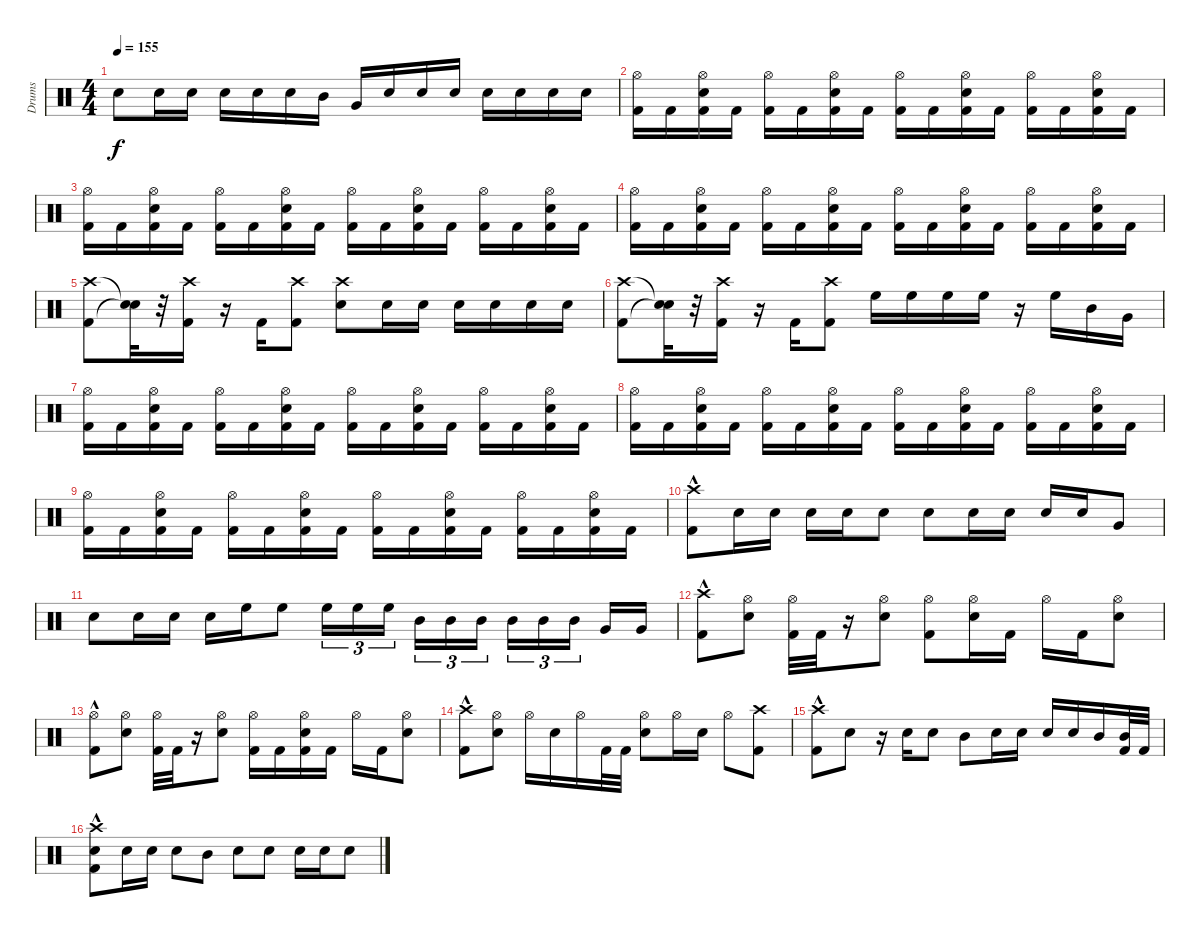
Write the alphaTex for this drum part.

\track ("Drums" "Drums") {instrument percussion}
\staff {score}
\articulation defaults
\ts (4 4)
\tempo 155
\clef neutral
\ks c "Snare (hit) 2".8{dy f} "Snare (hit) 2".16 "Snare (hit) 2".16 "Snare (hit) 2".16 "Snare (hit) 2".16 "Snare (hit) 2".16 "Mid Tom (hit)".16 "Very Low Tom (hit)".16 "Snare (hit) 2".16 "Snare (hit) 2".16 "Snare (hit) 2".16 "Snare (hit) 2".16 "Snare (hit) 2".16 "Snare (hit) 2".16 "Snare (hit) 2".16
|
("Kick (hit) 2" "Hi-Hat (open)").16 "Kick (hit) 2".16 ("Kick (hit) 2" "Snare (hit) 2" "Hi-Hat (open)").16 "Kick (hit) 2".16 ("Kick (hit) 2" "Hi-Hat (open)").16 "Kick (hit) 2".16 ("Kick (hit) 2" "Snare (hit) 2" "Hi-Hat (open)").16 "Kick (hit) 2".16 ("Kick (hit) 2" "Hi-Hat (open)").16 "Kick (hit) 2".16 ("Kick (hit) 2" "Snare (hit) 2" "Hi-Hat (open)").16 "Kick (hit) 2".16 ("Kick (hit) 2" "Hi-Hat (open)").16 "Kick (hit) 2".16 ("Kick (hit) 2" "Snare (hit) 2" "Hi-Hat (open)").16 "Kick (hit) 2".16 |
("Kick (hit) 2" "Hi-Hat (open)").16 "Kick (hit) 2".16 ("Kick (hit) 2" "Snare (hit) 2" "Hi-Hat (open)").16 "Kick (hit) 2".16 ("Kick (hit) 2" "Hi-Hat (open)").16 "Kick (hit) 2".16 ("Kick (hit) 2" "Snare (hit) 2" "Hi-Hat (open)").16 "Kick (hit) 2".16 ("Kick (hit) 2" "Hi-Hat (open)").16 "Kick (hit) 2".16 ("Kick (hit) 2" "Snare (hit) 2" "Hi-Hat (open)").16 "Kick (hit) 2".16 ("Kick (hit) 2" "Hi-Hat (open)").16 "Kick (hit) 2".16 ("Kick (hit) 2" "Snare (hit) 2" "Hi-Hat (open)").16 "Kick (hit) 2".16 |
("Kick (hit) 2" "Hi-Hat (open)").16 "Kick (hit) 2".16 ("Kick (hit) 2" "Snare (hit) 2" "Hi-Hat (open)").16 "Kick (hit) 2".16 ("Kick (hit) 2" "Hi-Hat (open)").16 "Kick (hit) 2".16 ("Kick (hit) 2" "Snare (hit) 2" "Hi-Hat (open)").16 "Kick (hit) 2".16 ("Kick (hit) 2" "Hi-Hat (open)").16 "Kick (hit) 2".16 ("Kick (hit) 2" "Snare (hit) 2" "Hi-Hat (open)").16 "Kick (hit) 2".16 ("Kick (hit) 2" "Hi-Hat (open)").16 "Kick (hit) 2".16 ("Kick (hit) 2" "Snare (hit) 2" "Hi-Hat (open)").16 "Kick (hit) 2".16 |
("Kick (hit) 2" "Crash high (hit)").8 ("Snare (hit)"{t} "Snare (hit)"{t}).32 r.32 ("Crash high (hit)" "Kick (hit) 2").16 r.16 "Kick (hit) 2".16 ("Kick (hit) 2" "Crash high (hit)").8 ("Crash high (hit)" "Snare (hit) 2").8 "Snare (hit) 2".16 "Snare (hit) 2".16 "Snare (hit) 2".16 "Snare (hit) 2".16 "Snare (hit) 2".16 "Snare (hit) 2".16 |
("Kick (hit) 2" "Crash high (hit)").8 ("Snare (hit)"{t} "Snare (hit)"{t}).32 r.32 ("Crash high (hit)" "Kick (hit) 2").16 r.16 "Kick (hit) 2".16 ("Kick (hit) 2" "Crash high (hit)").8 "High Floor Tom (hit)".16 "High Floor Tom (hit)".16 "High Floor Tom (hit)".16 "High Floor Tom (hit)".16 r.16 "High Floor Tom (hit)".16 "Mid Tom (hit)".16 "Very Low Tom (hit)".16 |
("Kick (hit) 2" "Hi-Hat (open)").16 "Kick (hit) 2".16 ("Kick (hit) 2" "Snare (hit) 2" "Hi-Hat (open)").16 "Kick (hit) 2".16 ("Kick (hit) 2" "Hi-Hat (open)").16 "Kick (hit) 2".16 ("Kick (hit) 2" "Snare (hit) 2" "Hi-Hat (open)").16 "Kick (hit) 2".16 ("Kick (hit) 2" "Hi-Hat (open)").16 "Kick (hit) 2".16 ("Kick (hit) 2" "Snare (hit) 2" "Hi-Hat (open)").16 "Kick (hit) 2".16 ("Kick (hit) 2" "Hi-Hat (open)").16 "Kick (hit) 2".16 ("Kick (hit) 2" "Snare (hit) 2" "Hi-Hat (open)").16 "Kick (hit) 2".16 |
("Kick (hit) 2" "Hi-Hat (open)").16 "Kick (hit) 2".16 ("Kick (hit) 2" "Snare (hit) 2" "Hi-Hat (open)").16 "Kick (hit) 2".16 ("Kick (hit) 2" "Hi-Hat (open)").16 "Kick (hit) 2".16 ("Kick (hit) 2" "Snare (hit) 2" "Hi-Hat (open)").16 "Kick (hit) 2".16 ("Kick (hit) 2" "Hi-Hat (open)").16 "Kick (hit) 2".16 ("Kick (hit) 2" "Snare (hit) 2" "Hi-Hat (open)").16 "Kick (hit) 2".16 ("Kick (hit) 2" "Hi-Hat (open)").16 "Kick (hit) 2".16 ("Kick (hit) 2" "Snare (hit) 2" "Hi-Hat (open)").16 "Kick (hit) 2".16 |
("Kick (hit) 2" "Hi-Hat (open)").16 "Kick (hit) 2".16 ("Kick (hit) 2" "Snare (hit) 2" "Hi-Hat (open)").16 "Kick (hit) 2".16 ("Kick (hit) 2" "Hi-Hat (open)").16 "Kick (hit) 2".16 ("Kick (hit) 2" "Snare (hit) 2" "Hi-Hat (open)").16 "Kick (hit) 2".16 ("Kick (hit) 2" "Hi-Hat (open)").16 "Kick (hit) 2".16 ("Kick (hit) 2" "Snare (hit) 2" "Hi-Hat (open)").16 "Kick (hit) 2".16 ("Kick (hit) 2" "Hi-Hat (open)").16 "Kick (hit) 2".16 ("Kick (hit) 2" "Snare (hit) 2" "Hi-Hat (open)").16 "Kick (hit) 2".16 |
("Kick (hit) 2"{hac} "Crash high (hit)"{hac}).8 "Snare (hit) 2".16 "Snare (hit) 2".16 "Snare (hit) 2".16 "Snare (hit) 2".16 "Snare (hit) 2".8 "Snare (hit) 2".8 "Snare (hit) 2".16 "Snare (hit) 2".16 "Snare (hit) 2".16 "Snare (hit) 2".16 "Very Low Tom (hit)".8 |
"Snare (hit) 2".8 "Snare (hit) 2".16 "Snare (hit) 2".16 "Snare (hit) 2".16 "High Floor Tom (hit)".16 "High Floor Tom (hit)".8 "High Floor Tom (hit)".16{tu (3 2)} "High Floor Tom (hit)".16{tu (3 2)} "High Floor Tom (hit)".16{tu (3 2)} "Mid Tom (hit)".16{tu (3 2)} "Mid Tom (hit)".16{tu (3 2)} "Mid Tom (hit)".16{tu (3 2)} "Mid Tom (hit)".16{tu (3 2)} "Mid Tom (hit)".16{tu (3 2)} "Mid Tom (hit)".16{tu (3 2)} "Very Low Tom (hit)".16 "Very Low Tom (hit)".16 |
("Kick (hit) 2"{hac} "Crash high (hit)").8 ("Hi-Hat (open)" "Snare (hit) 2").8 ("Hi-Hat (open)" "Kick (hit) 2").32 "Kick (hit) 2".32 r.16 ("Hi-Hat (open)" "Snare (hit) 2").8 ("Hi-Hat (open)" "Kick (hit) 2").8 ("Hi-Hat (open)" "Snare (hit) 2").16 "Kick (hit) 2".16 "Hi-Hat (open)".16 "Kick (hit) 2".16 ("Hi-Hat (open)" "Snare (hit) 2").8 |
("Kick (hit) 2"{hac} "Hi-Hat (open)").8 ("Hi-Hat (open)" "Snare (hit) 2").8 ("Hi-Hat (open)" "Kick (hit) 2").32 "Kick (hit) 2".32 r.16 ("Hi-Hat (open)" "Snare (hit) 2").8 ("Hi-Hat (open)" "Kick (hit) 2").16 "Kick (hit) 2".16 ("Hi-Hat (open)" "Snare (hit) 2" "Kick (hit) 2").16 "Kick (hit) 2".16 "Hi-Hat (open)".16 "Kick (hit) 2".16 ("Hi-Hat (open)" "Snare (hit) 2").8 |
("Kick (hit) 2"{hac} "Crash high (hit)").8 ("Snare (hit) 2" "Hi-Hat (open)").8 "Hi-Hat (open)".16 "Snare (hit) 2".16 "Hi-Hat (open)".16 "Kick (hit) 2".32 "Kick (hit) 2".32 ("Snare (hit) 2" "Hi-Hat (open)").8 "Hi-Hat (open)".16 "Snare (hit) 2".16 "Hi-Hat (open)".8 ("Kick (hit) 2" "Crash high (hit)").8 |
("Crash high (hit)" "Kick (hit) 2"{hac}).8 "Snare (hit) 2".8 r.16 "Snare (hit) 2".16 "Snare (hit) 2".8 "Mid Tom (hit)".8 "Snare (hit) 2".16 "Snare (hit) 2".16 "Snare (hit) 2".16 "Snare (hit) 2".16 "Mid Tom (hit)".16 ("Mid Tom (hit)" "Kick (hit) 2").32 "Kick (hit) 2".32 |
("Kick (hit) 2"{hac} "Crash high (hit)" "Snare (hit) 2").8 "Snare (hit) 2".16 "Snare (hit) 2".16 "Snare (hit) 2".8 "Mid Tom (hit)".8 "Snare (hit) 2".8 "Snare (hit) 2".8 "Snare (hit) 2".16 "Snare (hit) 2".16 "Snare (hit) 2".8
